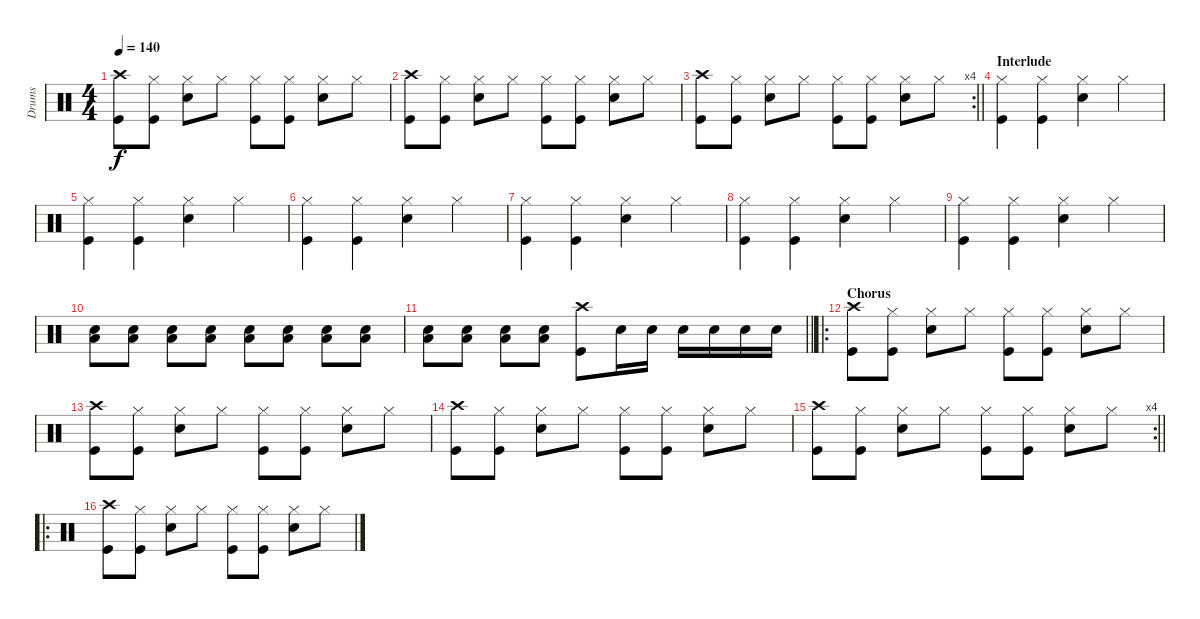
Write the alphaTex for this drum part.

\track ("Drums" "Drums") {instrument percussion}
\staff {score}
\articulation defaults
\ts (4 4)
\tempo 140
\clef neutral
\ks c
("Crash high (hit)" "Kick (hit)").8{dy f} ("Hi-Hat (closed)" "Kick (hit)").8 ("Snare (hit) 2" "Hi-Hat (closed)").8 "Hi-Hat (closed)".8 ("Hi-Hat (closed)" "Kick (hit)").8 ("Hi-Hat (closed)" "Kick (hit)").8 ("Snare (hit) 2" "Hi-Hat (closed)").8 "Hi-Hat (closed)".8 |
("Crash high (hit)" "Kick (hit)").8 ("Hi-Hat (closed)" "Kick (hit)").8 ("Snare (hit) 2" "Hi-Hat (closed)").8 "Hi-Hat (closed)".8 ("Hi-Hat (closed)" "Kick (hit)").8 ("Hi-Hat (closed)" "Kick (hit)").8 ("Snare (hit) 2" "Hi-Hat (closed)").8 "Hi-Hat (closed)".8 |
\rc 4
\barLineRight lightlight
("Crash high (hit)" "Kick (hit)").8 ("Hi-Hat (closed)" "Kick (hit)").8 ("Snare (hit) 2" "Hi-Hat (closed)").8 "Hi-Hat (closed)".8 ("Hi-Hat (closed)" "Kick (hit)").8 ("Hi-Hat (closed)" "Kick (hit)").8 ("Snare (hit) 2" "Hi-Hat (closed)").8 "Hi-Hat (closed)".8 |
\section ("" "Interlude")
("Hi-Hat (closed)" "Kick (hit)").4 ("Hi-Hat (closed)" "Kick (hit)").4 ("Snare (hit) 2" "Hi-Hat (closed)").4 "Hi-Hat (closed)".4 |
("Hi-Hat (closed)" "Kick (hit)").4 ("Hi-Hat (closed)" "Kick (hit)").4 ("Snare (hit) 2" "Hi-Hat (closed)").4 "Hi-Hat (closed)".4 |
("Hi-Hat (closed)" "Kick (hit)").4 ("Hi-Hat (closed)" "Kick (hit)").4 ("Snare (hit) 2" "Hi-Hat (closed)").4 "Hi-Hat (closed)".4 |
("Hi-Hat (closed)" "Kick (hit)").4 ("Hi-Hat (closed)" "Kick (hit)").4 ("Snare (hit) 2" "Hi-Hat (closed)").4 "Hi-Hat (closed)".4 |
("Hi-Hat (closed)" "Kick (hit)").4 ("Hi-Hat (closed)" "Kick (hit)").4 ("Snare (hit) 2" "Hi-Hat (closed)").4 "Hi-Hat (closed)".4 |
("Hi-Hat (closed)" "Kick (hit)").4 ("Hi-Hat (closed)" "Kick (hit)").4 ("Snare (hit) 2" "Hi-Hat (closed)").4 "Hi-Hat (closed)".4 |
("Low Floor Tom (hit)" "Snare (hit) 2").8 ("Low Floor Tom (hit)" "Snare (hit) 2").8 ("Low Floor Tom (hit)" "Snare (hit) 2").8 ("Low Floor Tom (hit)" "Snare (hit) 2").8 ("Low Floor Tom (hit)" "Snare (hit) 2").8 ("Low Floor Tom (hit)" "Snare (hit) 2").8 ("Low Floor Tom (hit)" "Snare (hit) 2").8 ("Low Floor Tom (hit)" "Snare (hit) 2").8 |
\barLineRight lightlight
("Low Floor Tom (hit)" "Snare (hit) 2").8 ("Low Floor Tom (hit)" "Snare (hit) 2").8 ("Low Floor Tom (hit)" "Snare (hit) 2").8 ("Low Floor Tom (hit)" "Snare (hit) 2").8 ("Crash high (hit)" "Kick (hit)").8 "Snare (hit) 2".16 "Snare (hit) 2".16 "Snare (hit) 2".16 "Snare (hit) 2".16 "Snare (hit) 2".16 "Snare (hit) 2".16 |
\ro
\section ("" "Chorus")
("Crash high (hit)" "Kick (hit)").8 ("Hi-Hat (closed)" "Kick (hit)").8 ("Snare (hit) 2" "Hi-Hat (closed)").8 "Hi-Hat (closed)".8 ("Hi-Hat (closed)" "Kick (hit)").8 ("Hi-Hat (closed)" "Kick (hit)").8 ("Snare (hit) 2" "Hi-Hat (closed)").8 "Hi-Hat (closed)".8 |
("Crash high (hit)" "Kick (hit)").8 ("Hi-Hat (closed)" "Kick (hit)").8 ("Snare (hit) 2" "Hi-Hat (closed)").8 "Hi-Hat (closed)".8 ("Hi-Hat (closed)" "Kick (hit)").8 ("Hi-Hat (closed)" "Kick (hit)").8 ("Snare (hit) 2" "Hi-Hat (closed)").8 "Hi-Hat (closed)".8 |
("Crash high (hit)" "Kick (hit)").8 ("Hi-Hat (closed)" "Kick (hit)").8 ("Snare (hit) 2" "Hi-Hat (closed)").8 "Hi-Hat (closed)".8 ("Hi-Hat (closed)" "Kick (hit)").8 ("Hi-Hat (closed)" "Kick (hit)").8 ("Snare (hit) 2" "Hi-Hat (closed)").8 "Hi-Hat (closed)".8 |
\rc 4
\barLineRight lightlight
("Crash high (hit)" "Kick (hit)").8 ("Hi-Hat (closed)" "Kick (hit)").8 ("Snare (hit) 2" "Hi-Hat (closed)").8 "Hi-Hat (closed)".8 ("Hi-Hat (closed)" "Kick (hit)").8 ("Hi-Hat (closed)" "Kick (hit)").8 ("Snare (hit) 2" "Hi-Hat (closed)").8 "Hi-Hat (closed)".8 |
\ro
("Crash high (hit)" "Kick (hit)").8 ("Hi-Hat (closed)" "Kick (hit)").8 ("Snare (hit) 2" "Hi-Hat (closed)").8 "Hi-Hat (closed)".8 ("Hi-Hat (closed)" "Kick (hit)").8 ("Hi-Hat (closed)" "Kick (hit)").8 ("Snare (hit) 2" "Hi-Hat (closed)").8 "Hi-Hat (closed)".8
